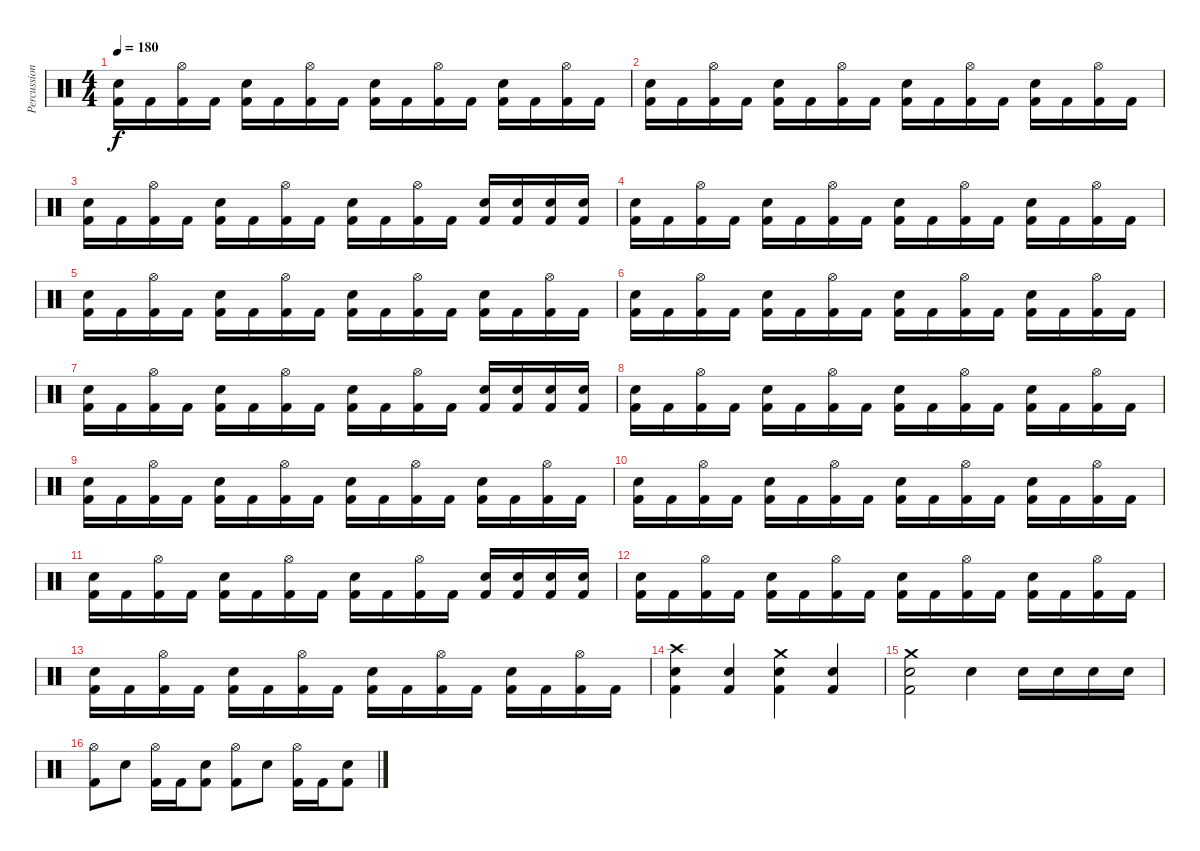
\track ("Percussion" "Percussion") {instrument percussion}
\staff {score}
\articulation defaults
\ts (4 4)
\tempo 180
\clef neutral
\ks c
("Kick (hit) 2" "Snare (hit) 2").16{dy f} "Kick (hit) 2".16 ("Kick (hit) 2" "Hi-Hat (open)").16 "Kick (hit) 2".16 ("Kick (hit) 2" "Snare (hit) 2").16 "Kick (hit) 2".16 ("Kick (hit) 2" "Hi-Hat (open)").16 "Kick (hit) 2".16 ("Kick (hit) 2" "Snare (hit) 2").16 "Kick (hit) 2".16 ("Kick (hit) 2" "Hi-Hat (open)").16 "Kick (hit) 2".16 ("Kick (hit) 2" "Snare (hit) 2").16 "Kick (hit) 2".16 ("Kick (hit) 2" "Hi-Hat (open)").16 "Kick (hit) 2".16 |
("Kick (hit) 2" "Snare (hit) 2").16 "Kick (hit) 2".16 ("Kick (hit) 2" "Hi-Hat (open)").16 "Kick (hit) 2".16 ("Kick (hit) 2" "Snare (hit) 2").16 "Kick (hit) 2".16 ("Kick (hit) 2" "Hi-Hat (open)").16 "Kick (hit) 2".16 ("Kick (hit) 2" "Snare (hit) 2").16 "Kick (hit) 2".16 ("Kick (hit) 2" "Hi-Hat (open)").16 "Kick (hit) 2".16 ("Kick (hit) 2" "Snare (hit) 2").16 "Kick (hit) 2".16 ("Kick (hit) 2" "Hi-Hat (open)").16 "Kick (hit) 2".16 |
("Kick (hit) 2" "Snare (hit) 2").16 "Kick (hit) 2".16 ("Kick (hit) 2" "Hi-Hat (open)").16 "Kick (hit) 2".16 ("Kick (hit) 2" "Snare (hit) 2").16 "Kick (hit) 2".16 ("Kick (hit) 2" "Hi-Hat (open)").16 "Kick (hit) 2".16 ("Kick (hit) 2" "Snare (hit) 2").16 "Kick (hit) 2".16 ("Kick (hit) 2" "Hi-Hat (open)").16 "Kick (hit) 2".16 ("Kick (hit) 2" "Snare (hit) 2").16 ("Kick (hit) 2" "Snare (hit) 2").16 ("Kick (hit) 2" "Snare (hit) 2").16 ("Kick (hit) 2" "Snare (hit) 2").16 |
("Kick (hit) 2" "Snare (hit) 2").16 "Kick (hit) 2".16 ("Kick (hit) 2" "Hi-Hat (open)").16 "Kick (hit) 2".16 ("Kick (hit) 2" "Snare (hit) 2").16 "Kick (hit) 2".16 ("Kick (hit) 2" "Hi-Hat (open)").16 "Kick (hit) 2".16 ("Kick (hit) 2" "Snare (hit) 2").16 "Kick (hit) 2".16 ("Kick (hit) 2" "Hi-Hat (open)").16 "Kick (hit) 2".16 ("Kick (hit) 2" "Snare (hit) 2").16 "Kick (hit) 2".16 ("Kick (hit) 2" "Hi-Hat (open)").16 "Kick (hit) 2".16 |
("Kick (hit) 2" "Snare (hit) 2").16 "Kick (hit) 2".16 ("Kick (hit) 2" "Hi-Hat (open)").16 "Kick (hit) 2".16 ("Kick (hit) 2" "Snare (hit) 2").16 "Kick (hit) 2".16 ("Kick (hit) 2" "Hi-Hat (open)").16 "Kick (hit) 2".16 ("Kick (hit) 2" "Snare (hit) 2").16 "Kick (hit) 2".16 ("Kick (hit) 2" "Hi-Hat (open)").16 "Kick (hit) 2".16 ("Kick (hit) 2" "Snare (hit) 2").16 "Kick (hit) 2".16 ("Kick (hit) 2" "Hi-Hat (open)").16 "Kick (hit) 2".16 |
("Kick (hit) 2" "Snare (hit) 2").16 "Kick (hit) 2".16 ("Kick (hit) 2" "Hi-Hat (open)").16 "Kick (hit) 2".16 ("Kick (hit) 2" "Snare (hit) 2").16 "Kick (hit) 2".16 ("Kick (hit) 2" "Hi-Hat (open)").16 "Kick (hit) 2".16 ("Kick (hit) 2" "Snare (hit) 2").16 "Kick (hit) 2".16 ("Kick (hit) 2" "Hi-Hat (open)").16 "Kick (hit) 2".16 ("Kick (hit) 2" "Snare (hit) 2").16 "Kick (hit) 2".16 ("Kick (hit) 2" "Hi-Hat (open)").16 "Kick (hit) 2".16 |
("Kick (hit) 2" "Snare (hit) 2").16 "Kick (hit) 2".16 ("Kick (hit) 2" "Hi-Hat (open)").16 "Kick (hit) 2".16 ("Kick (hit) 2" "Snare (hit) 2").16 "Kick (hit) 2".16 ("Kick (hit) 2" "Hi-Hat (open)").16 "Kick (hit) 2".16 ("Kick (hit) 2" "Snare (hit) 2").16 "Kick (hit) 2".16 ("Kick (hit) 2" "Hi-Hat (open)").16 "Kick (hit) 2".16 ("Kick (hit) 2" "Snare (hit) 2").16 ("Kick (hit) 2" "Snare (hit) 2").16 ("Kick (hit) 2" "Snare (hit) 2").16 ("Kick (hit) 2" "Snare (hit) 2").16 |
("Kick (hit) 2" "Snare (hit) 2").16 "Kick (hit) 2".16 ("Kick (hit) 2" "Hi-Hat (open)").16 "Kick (hit) 2".16 ("Kick (hit) 2" "Snare (hit) 2").16 "Kick (hit) 2".16 ("Kick (hit) 2" "Hi-Hat (open)").16 "Kick (hit) 2".16 ("Kick (hit) 2" "Snare (hit) 2").16 "Kick (hit) 2".16 ("Kick (hit) 2" "Hi-Hat (open)").16 "Kick (hit) 2".16 ("Kick (hit) 2" "Snare (hit) 2").16 "Kick (hit) 2".16 ("Kick (hit) 2" "Hi-Hat (open)").16 "Kick (hit) 2".16 |
("Kick (hit) 2" "Snare (hit) 2").16 "Kick (hit) 2".16 ("Kick (hit) 2" "Hi-Hat (open)").16 "Kick (hit) 2".16 ("Kick (hit) 2" "Snare (hit) 2").16 "Kick (hit) 2".16 ("Kick (hit) 2" "Hi-Hat (open)").16 "Kick (hit) 2".16 ("Kick (hit) 2" "Snare (hit) 2").16 "Kick (hit) 2".16 ("Kick (hit) 2" "Hi-Hat (open)").16 "Kick (hit) 2".16 ("Kick (hit) 2" "Snare (hit) 2").16 "Kick (hit) 2".16 ("Kick (hit) 2" "Hi-Hat (open)").16 "Kick (hit) 2".16 |
("Kick (hit) 2" "Snare (hit) 2").16 "Kick (hit) 2".16 ("Kick (hit) 2" "Hi-Hat (open)").16 "Kick (hit) 2".16 ("Kick (hit) 2" "Snare (hit) 2").16 "Kick (hit) 2".16 ("Kick (hit) 2" "Hi-Hat (open)").16 "Kick (hit) 2".16 ("Kick (hit) 2" "Snare (hit) 2").16 "Kick (hit) 2".16 ("Kick (hit) 2" "Hi-Hat (open)").16 "Kick (hit) 2".16 ("Kick (hit) 2" "Snare (hit) 2").16 "Kick (hit) 2".16 ("Kick (hit) 2" "Hi-Hat (open)").16 "Kick (hit) 2".16 |
("Kick (hit) 2" "Snare (hit) 2").16 "Kick (hit) 2".16 ("Kick (hit) 2" "Hi-Hat (open)").16 "Kick (hit) 2".16 ("Kick (hit) 2" "Snare (hit) 2").16 "Kick (hit) 2".16 ("Kick (hit) 2" "Hi-Hat (open)").16 "Kick (hit) 2".16 ("Kick (hit) 2" "Snare (hit) 2").16 "Kick (hit) 2".16 ("Kick (hit) 2" "Hi-Hat (open)").16 "Kick (hit) 2".16 ("Kick (hit) 2" "Snare (hit) 2").16 ("Kick (hit) 2" "Snare (hit) 2").16 ("Kick (hit) 2" "Snare (hit) 2").16 ("Kick (hit) 2" "Snare (hit) 2").16 |
("Kick (hit) 2" "Snare (hit) 2").16 "Kick (hit) 2".16 ("Kick (hit) 2" "Hi-Hat (open)").16 "Kick (hit) 2".16 ("Kick (hit) 2" "Snare (hit) 2").16 "Kick (hit) 2".16 ("Kick (hit) 2" "Hi-Hat (open)").16 "Kick (hit) 2".16 ("Kick (hit) 2" "Snare (hit) 2").16 "Kick (hit) 2".16 ("Kick (hit) 2" "Hi-Hat (open)").16 "Kick (hit) 2".16 ("Kick (hit) 2" "Snare (hit) 2").16 "Kick (hit) 2".16 ("Kick (hit) 2" "Hi-Hat (open)").16 "Kick (hit) 2".16 |
("Kick (hit) 2" "Snare (hit) 2").16 "Kick (hit) 2".16 ("Kick (hit) 2" "Hi-Hat (open)").16 "Kick (hit) 2".16 ("Kick (hit) 2" "Snare (hit) 2").16 "Kick (hit) 2".16 ("Kick (hit) 2" "Hi-Hat (open)").16 "Kick (hit) 2".16 ("Kick (hit) 2" "Snare (hit) 2").16 "Kick (hit) 2".16 ("Kick (hit) 2" "Hi-Hat (open)").16 "Kick (hit) 2".16 ("Kick (hit) 2" "Snare (hit) 2").16 "Kick (hit) 2".16 ("Kick (hit) 2" "Hi-Hat (open)").16 "Kick (hit) 2".16 |
("Kick (hit) 2" "Snare (hit) 2" "Crash high (hit)").4 ("Kick (hit) 2" "Snare (hit) 2").4 ("Kick (hit) 2" "Snare (hit) 2" "Crash medium (hit)").4 ("Kick (hit) 2" "Snare (hit) 2").4 |
("Kick (hit) 2" "Snare (hit) 2" "Crash medium (hit)").2 "Electric Snare (hit)".4 "Snare (hit) 2".16 "Snare (hit) 2".16 "Snare (hit) 2".16 "Snare (hit) 2".16 |
("Kick (hit) 2" "Hi-Hat (open)").8 "Snare (hit) 2".8 ("Kick (hit) 2" "Hi-Hat (open)").16 "Kick (hit) 2".16 ("Kick (hit) 2" "Snare (hit) 2").8 ("Kick (hit) 2" "Hi-Hat (open)").8 "Snare (hit) 2".8 ("Kick (hit) 2" "Hi-Hat (open)").16 "Kick (hit) 2".16 ("Kick (hit) 2" "Snare (hit) 2").8
